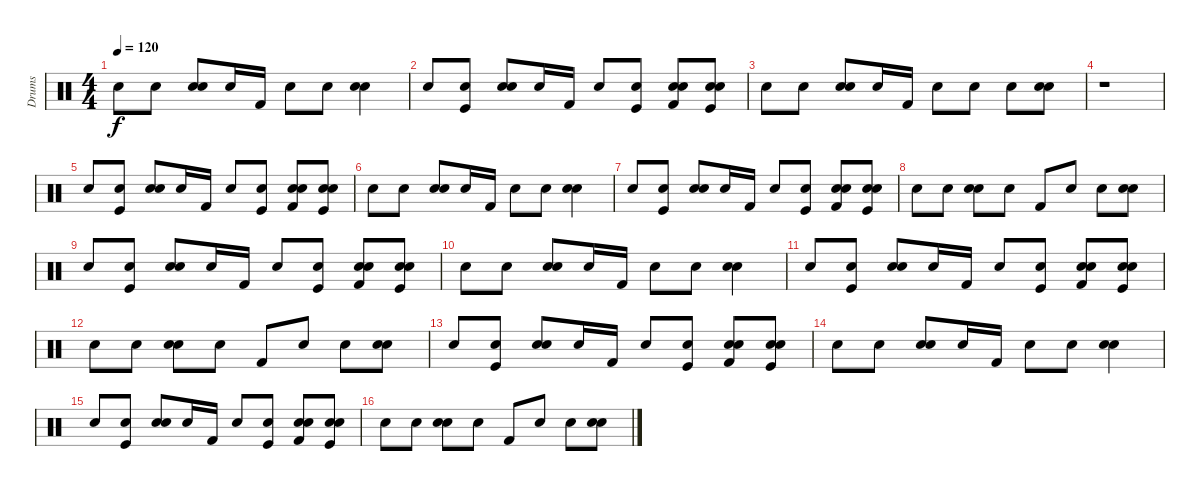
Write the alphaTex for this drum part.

\track ("Drums" "Drums") {instrument percussion}
\staff {score}
\articulation defaults
\ts (4 4)
\tempo 120
\clef neutral
\ks c "Snare (hit) 2".8{dy f} "Snare (hit) 2".8
("Electric Snare (hit)" "Snare (hit) 2").8 "Snare (hit) 2".16 "Kick (hit) 2".16 "Snare (hit) 2".8 "Snare (hit) 2".8 ("Electric Snare (hit)" "Snare (hit) 2").4 |
"Snare (hit) 2".8 ("Snare (hit) 2" "Kick (hit)").8 ("Electric Snare (hit)" "Snare (hit) 2").8 "Snare (hit) 2".16 "Kick (hit) 2".16 "Snare (hit) 2".8 ("Snare (hit) 2" "Kick (hit)").8 ("Electric Snare (hit)" "Snare (hit) 2" "Kick (hit) 2").8 ("Electric Snare (hit)" "Snare (hit) 2" "Kick (hit)").8 |
"Snare (hit) 2".8 "Snare (hit) 2".8 ("Electric Snare (hit)" "Snare (hit) 2").8 "Snare (hit) 2".16 "Kick (hit) 2".16 "Snare (hit) 2".8 "Snare (hit) 2".8 "Snare (hit) 2".8 ("Electric Snare (hit)" "Snare (hit) 2").8 |
r.1 |
"Snare (hit) 2".8 ("Snare (hit) 2" "Kick (hit)").8 ("Electric Snare (hit)" "Snare (hit) 2").8 "Snare (hit) 2".16 "Kick (hit) 2".16 "Snare (hit) 2".8 ("Snare (hit) 2" "Kick (hit)").8 ("Electric Snare (hit)" "Snare (hit) 2" "Kick (hit) 2").8 ("Electric Snare (hit)" "Snare (hit) 2" "Kick (hit)").8 |
"Snare (hit) 2".8 "Snare (hit) 2".8 ("Electric Snare (hit)" "Snare (hit) 2").8 "Snare (hit) 2".16 "Kick (hit) 2".16 "Snare (hit) 2".8 "Snare (hit) 2".8 ("Electric Snare (hit)" "Snare (hit) 2").4 |
"Snare (hit) 2".8 ("Snare (hit) 2" "Kick (hit)").8 ("Electric Snare (hit)" "Snare (hit) 2").8 "Snare (hit) 2".16 "Kick (hit) 2".16 "Snare (hit) 2".8 ("Snare (hit) 2" "Kick (hit)").8 ("Electric Snare (hit)" "Snare (hit) 2" "Kick (hit) 2").8 ("Electric Snare (hit)" "Snare (hit) 2" "Kick (hit)").8 |
"Snare (hit) 2".8 "Snare (hit) 2".8 ("Electric Snare (hit)" "Snare (hit) 2").8 "Snare (hit) 2".8 "Kick (hit) 2".8 "Snare (hit) 2".8 "Snare (hit) 2".8 ("Electric Snare (hit)" "Snare (hit) 2").8 |
"Snare (hit) 2".8 ("Snare (hit) 2" "Kick (hit)").8 ("Electric Snare (hit)" "Snare (hit) 2").8 "Snare (hit) 2".16 "Kick (hit) 2".16 "Snare (hit) 2".8 ("Snare (hit) 2" "Kick (hit)").8 ("Electric Snare (hit)" "Snare (hit) 2" "Kick (hit) 2").8 ("Electric Snare (hit)" "Snare (hit) 2" "Kick (hit)").8 |
"Snare (hit) 2".8 "Snare (hit) 2".8 ("Electric Snare (hit)" "Snare (hit) 2").8 "Snare (hit) 2".16 "Kick (hit) 2".16 "Snare (hit) 2".8 "Snare (hit) 2".8 ("Electric Snare (hit)" "Snare (hit) 2").4 |
"Snare (hit) 2".8 ("Snare (hit) 2" "Kick (hit)").8 ("Electric Snare (hit)" "Snare (hit) 2").8 "Snare (hit) 2".16 "Kick (hit) 2".16 "Snare (hit) 2".8 ("Snare (hit) 2" "Kick (hit)").8 ("Electric Snare (hit)" "Snare (hit) 2" "Kick (hit) 2").8 ("Electric Snare (hit)" "Snare (hit) 2" "Kick (hit)").8 |
"Snare (hit) 2".8 "Snare (hit) 2".8 ("Electric Snare (hit)" "Snare (hit) 2").8 "Snare (hit) 2".8 "Kick (hit) 2".8 "Snare (hit) 2".8 "Snare (hit) 2".8 ("Electric Snare (hit)" "Snare (hit) 2").8 |
"Snare (hit) 2".8 ("Snare (hit) 2" "Kick (hit)").8 ("Electric Snare (hit)" "Snare (hit) 2").8 "Snare (hit) 2".16 "Kick (hit) 2".16 "Snare (hit) 2".8 ("Snare (hit) 2" "Kick (hit)").8 ("Electric Snare (hit)" "Snare (hit) 2" "Kick (hit) 2").8 ("Electric Snare (hit)" "Snare (hit) 2" "Kick (hit)").8 |
"Snare (hit) 2".8 "Snare (hit) 2".8 ("Electric Snare (hit)" "Snare (hit) 2").8 "Snare (hit) 2".16 "Kick (hit) 2".16 "Snare (hit) 2".8 "Snare (hit) 2".8 ("Electric Snare (hit)" "Snare (hit) 2").4 |
"Snare (hit) 2".8 ("Snare (hit) 2" "Kick (hit)").8 ("Electric Snare (hit)" "Snare (hit) 2").8 "Snare (hit) 2".16 "Kick (hit) 2".16 "Snare (hit) 2".8 ("Snare (hit) 2" "Kick (hit)").8 ("Electric Snare (hit)" "Snare (hit) 2" "Kick (hit) 2").8 ("Electric Snare (hit)" "Snare (hit) 2" "Kick (hit)").8 |
"Snare (hit) 2".8 "Snare (hit) 2".8 ("Electric Snare (hit)" "Snare (hit) 2").8 "Snare (hit) 2".8 "Kick (hit) 2".8 "Snare (hit) 2".8 "Snare (hit) 2".8 ("Electric Snare (hit)" "Snare (hit) 2").8
